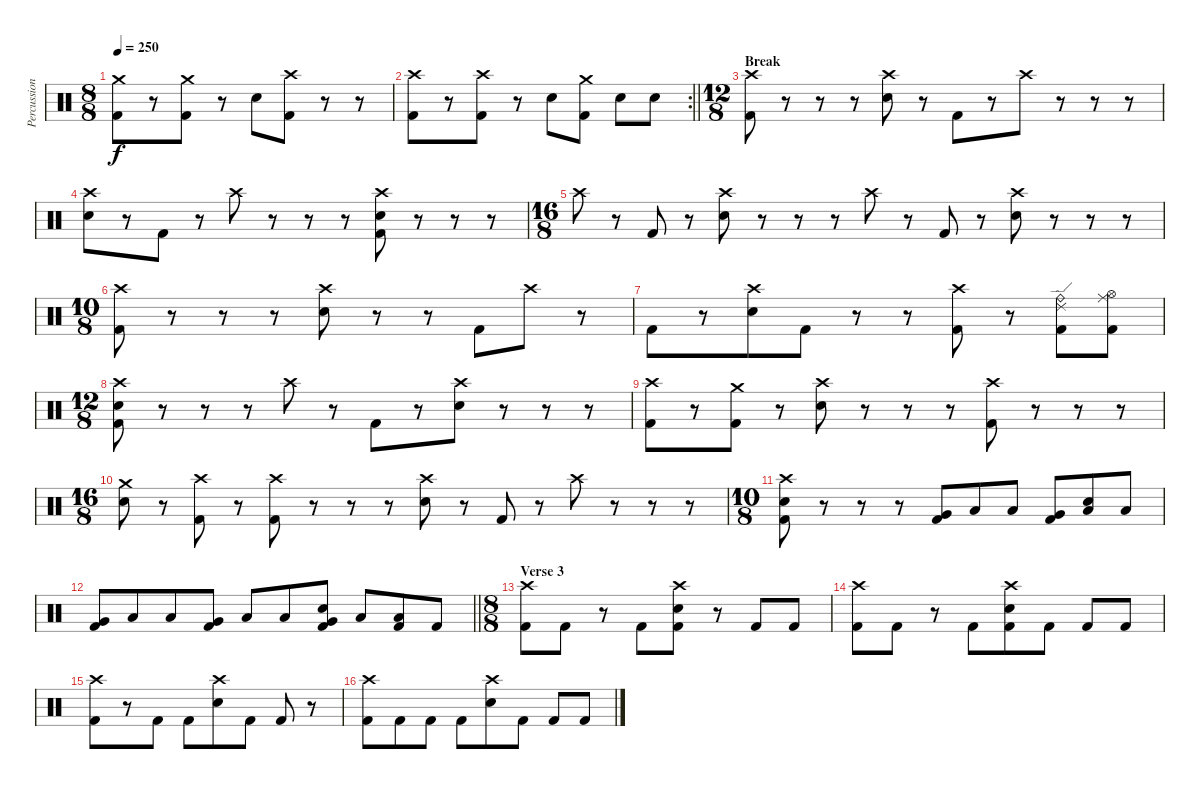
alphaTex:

\track ("Percussions" "Percussion") {instrument percussion}
\staff {score}
\articulation defaults
\ts (8 8)
\tempo 250
\clef neutral
\ks c
("Crash medium (hit)" "Kick (hit) 2").8{dy f} r.8 ("Crash medium (hit)" "Kick (hit) 2").8 r.8 "Electric Snare (hit)".8 ("Crash high (hit)" "Kick (hit) 2").8 r.8 r.8 |
\rc 2
\barLineRight lightlight
("Crash high (hit)" "Kick (hit) 2").8 r.8 ("Crash high (hit)" "Kick (hit) 2").8 r.8 "Electric Snare (hit)".8 ("Crash medium (hit)" "Kick (hit) 2").8 "Electric Snare (hit)".8 "Electric Snare (hit)".8 |
\ts (12 8)
\section ("" "Break")
("Crash high (hit)" "Kick (hit) 2").8 r.8 r.8 r.8 ("Crash high (hit)" "Electric Snare (hit)").8 r.8 "Kick (hit) 2".8 r.8 "Crash high (hit)".8 r.8 r.8 r.8 |
("Crash high (hit)" "Electric Snare (hit)").8 r.8 "Kick (hit) 2".8 r.8 "Crash high (hit)".8 r.8 r.8 r.8 ("Crash high (hit)" "Electric Snare (hit)" "Kick (hit) 2").8 r.8 r.8 r.8 |
\ts (16 8)
"Crash high (hit)".8 r.8 "Kick (hit) 2".8 r.8 ("Crash high (hit)" "Electric Snare (hit)").8 r.8 r.8 r.8 "Crash high (hit)".8 r.8 "Kick (hit) 2".8 r.8 ("Crash high (hit)" "Electric Snare (hit)").8 r.8 r.8 r.8 |
\ts (10 8)
("Crash high (hit)" "Kick (hit) 2").8 r.8 r.8 r.8 ("Crash high (hit)" "Electric Snare (hit)").8 r.8 r.8 "Kick (hit) 2".8 "Crash high (hit)".8 r.8 |
"Kick (hit) 2".8 r.8 ("Crash high (hit)" "Electric Snare (hit)").8 "Kick (hit) 2".8 r.8 r.8 ("Crash high (hit)" "Kick (hit) 2").8 r.8 ("Ride (bell)" "Ride (edge) 2" "Kick (hit) 2").8 ("Ride (middle)" "Hi-Hat (open)" "Kick (hit) 2").8 |
\ts (12 8)
("Crash high (hit)" "Electric Snare (hit)" "Kick (hit) 2").8 r.8 r.8 r.8 "Crash high (hit)".8 r.8 "Kick (hit) 2".8 r.8 ("Crash high (hit)" "Electric Snare (hit)").8 r.8 r.8 r.8 |
("Crash high (hit)" "Kick (hit) 2").8 r.8 ("Crash medium (hit)" "Kick (hit) 2").8 r.8 ("Crash high (hit)" "Electric Snare (hit)").8 r.8 r.8 r.8 ("Crash high (hit)" "Kick (hit) 2").8 r.8 r.8 r.8 |
\ts (16 8)
("Crash medium (hit)" "Electric Snare (hit)").8 r.8 ("Crash high (hit)" "Kick (hit) 2").8 r.8 ("Crash high (hit)" "Kick (hit) 2").8 r.8 r.8 r.8 ("Crash high (hit)" "Electric Snare (hit)").8 r.8 "Kick (hit) 2".8 r.8 "Crash high (hit)".8 r.8 r.8 r.8 |
\ts (10 8)
("Crash high (hit)" "Electric Snare (hit)" "Kick (hit) 2").8 r.8 r.8 r.8 ("Very Low Tom (hit)" "Kick (hit) 2").8 "Low Floor Tom (hit)".8 "Low Floor Tom (hit)".8 ("Very Low Tom (hit)" "Kick (hit) 2").8 ("Electric Snare (hit)" "Low Floor Tom (hit)").8 "Low Floor Tom (hit)".8 |
\barLineRight lightlight
("Very Low Tom (hit)" "Kick (hit) 2").8 "Low Floor Tom (hit)".8 "Low Floor Tom (hit)".8 ("Very Low Tom (hit)" "Kick (hit) 2").8 "Low Floor Tom (hit)".8 "Low Floor Tom (hit)".8 ("Electric Snare (hit)" "Very Low Tom (hit)" "Kick (hit) 2").8 "Low Floor Tom (hit)".8 ("Low Floor Tom (hit)" "Kick (hit) 2").8 "Kick (hit) 2".8 |
\ts (8 8)
\section ("" "Verse 3")
("Crash high (hit)" "Kick (hit) 2").8 "Kick (hit) 2".8 r.8 "Kick (hit) 2".8 ("Crash high (hit)" "Electric Snare (hit)" "Kick (hit) 2").8 r.8 "Kick (hit) 2".8 "Kick (hit) 2".8 |
("Crash high (hit)" "Kick (hit) 2").8 "Kick (hit) 2".8 r.8 "Kick (hit) 2".8 ("Crash high (hit)" "Electric Snare (hit)" "Kick (hit) 2").8 "Kick (hit) 2".8 "Kick (hit) 2".8 "Kick (hit) 2".8 |
("Crash high (hit)" "Kick (hit) 2").8 r.8 "Kick (hit) 2".8 "Kick (hit) 2".8 ("Crash high (hit)" "Electric Snare (hit)").8 "Kick (hit) 2".8 "Kick (hit) 2".8 r.8 |
("Crash high (hit)" "Kick (hit) 2").8 "Kick (hit) 2".8 "Kick (hit) 2".8 "Kick (hit) 2".8 ("Crash high (hit)" "Electric Snare (hit)").8 "Kick (hit) 2".8 "Kick (hit) 2".8 "Kick (hit) 2".8
